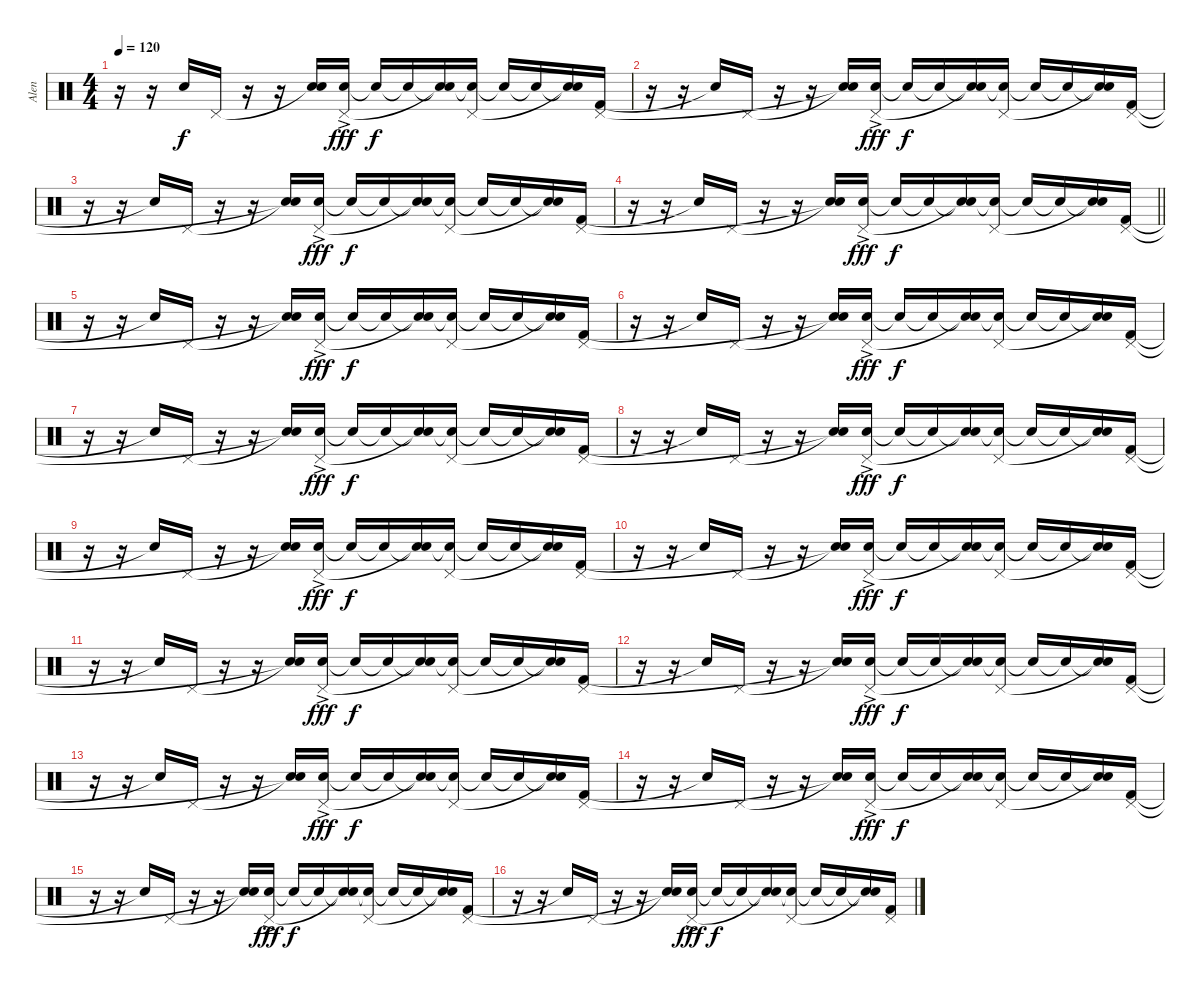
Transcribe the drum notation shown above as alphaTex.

\track ("Alen" "Alen") {instrument percussion}
\staff {score}
\articulation defaults
\ts (4 4)
\tempo 120
\clef neutral
\ks c
r.16{dy f} r.16 "Snare (hit)"{t}.16 "Pedal Hi-Hat (hit)".16 r.16 r.16 ("Snare (hit)"{t} "Snare (hit)"{t}).16 ("Snare (hit) 2"{ac} "Pedal Hi-Hat (hit)").16{dy fff} "Snare (hit)"{t}.16{dy f} "Snare (hit)"{t}.16 ("Snare (hit)"{t} "Snare (hit)"{t}).16 ("Snare (hit)"{t} "Pedal Hi-Hat (hit)").16 "Snare (hit)"{t}.16 "Snare (hit)"{t}.16 ("Snare (hit)"{t} "Snare (hit)"{t}).16 ("Kick (hit) 2" "Pedal Hi-Hat (hit)").16 |
r.16 r.16 "Snare (hit)"{t}.16 "Pedal Hi-Hat (hit)".16 r.16 r.16 ("Snare (hit)"{t} "Snare (hit)"{t}).16 ("Snare (hit) 2"{ac} "Pedal Hi-Hat (hit)").16{dy fff} "Snare (hit)"{t}.16{dy f} "Snare (hit)"{t}.16 ("Snare (hit)"{t} "Snare (hit)"{t}).16 ("Snare (hit)"{t} "Pedal Hi-Hat (hit)").16 "Snare (hit)"{t}.16 "Snare (hit)"{t}.16 ("Snare (hit)"{t} "Snare (hit)"{t}).16 ("Kick (hit) 2" "Pedal Hi-Hat (hit)").16 |
r.16 r.16 "Snare (hit)"{t}.16 "Pedal Hi-Hat (hit)".16 r.16 r.16 ("Snare (hit)"{t} "Snare (hit)"{t}).16 ("Snare (hit) 2"{ac} "Pedal Hi-Hat (hit)").16{dy fff} "Snare (hit)"{t}.16{dy f} "Snare (hit)"{t}.16 ("Snare (hit)"{t} "Snare (hit)"{t}).16 ("Snare (hit)"{t} "Pedal Hi-Hat (hit)").16 "Snare (hit)"{t}.16 "Snare (hit)"{t}.16 ("Snare (hit)"{t} "Snare (hit)"{t}).16 ("Kick (hit) 2" "Pedal Hi-Hat (hit)").16 |
\barLineRight lightlight
r.16 r.16 "Snare (hit)"{t}.16 "Pedal Hi-Hat (hit)".16 r.16 r.16 ("Snare (hit)"{t} "Snare (hit)"{t}).16 ("Snare (hit) 2"{ac} "Pedal Hi-Hat (hit)").16{dy fff} "Snare (hit)"{t}.16{dy f} "Snare (hit)"{t}.16 ("Snare (hit)"{t} "Snare (hit)"{t}).16 ("Snare (hit)"{t} "Pedal Hi-Hat (hit)").16 "Snare (hit)"{t}.16 "Snare (hit)"{t}.16 ("Snare (hit)"{t} "Snare (hit)"{t}).16 ("Kick (hit) 2" "Pedal Hi-Hat (hit)").16 |
r.16 r.16 "Snare (hit)"{t}.16 "Pedal Hi-Hat (hit)".16 r.16 r.16 ("Snare (hit)"{t} "Snare (hit)"{t}).16 ("Snare (hit) 2"{ac} "Pedal Hi-Hat (hit)").16{dy fff} "Snare (hit)"{t}.16{dy f} "Snare (hit)"{t}.16 ("Snare (hit)"{t} "Snare (hit)"{t}).16 ("Snare (hit)"{t} "Pedal Hi-Hat (hit)").16 "Snare (hit)"{t}.16 "Snare (hit)"{t}.16 ("Snare (hit)"{t} "Snare (hit)"{t}).16 ("Kick (hit) 2" "Pedal Hi-Hat (hit)").16 |
r.16 r.16 "Snare (hit)"{t}.16 "Pedal Hi-Hat (hit)".16 r.16 r.16 ("Snare (hit)"{t} "Snare (hit)"{t}).16 ("Snare (hit) 2"{ac} "Pedal Hi-Hat (hit)").16{dy fff} "Snare (hit)"{t}.16{dy f} "Snare (hit)"{t}.16 ("Snare (hit)"{t} "Snare (hit)"{t}).16 ("Snare (hit)"{t} "Pedal Hi-Hat (hit)").16 "Snare (hit)"{t}.16 "Snare (hit)"{t}.16 ("Snare (hit)"{t} "Snare (hit)"{t}).16 ("Kick (hit) 2" "Pedal Hi-Hat (hit)").16 |
r.16 r.16 "Snare (hit)"{t}.16 "Pedal Hi-Hat (hit)".16 r.16 r.16 ("Snare (hit)"{t} "Snare (hit)"{t}).16 ("Snare (hit) 2"{ac} "Pedal Hi-Hat (hit)").16{dy fff} "Snare (hit)"{t}.16{dy f} "Snare (hit)"{t}.16 ("Snare (hit)"{t} "Snare (hit)"{t}).16 ("Snare (hit)"{t} "Pedal Hi-Hat (hit)").16 "Snare (hit)"{t}.16 "Snare (hit)"{t}.16 ("Snare (hit)"{t} "Snare (hit)"{t}).16 ("Kick (hit) 2" "Pedal Hi-Hat (hit)").16 |
r.16 r.16 "Snare (hit)"{t}.16 "Pedal Hi-Hat (hit)".16 r.16 r.16 ("Snare (hit)"{t} "Snare (hit)"{t}).16 ("Snare (hit) 2"{ac} "Pedal Hi-Hat (hit)").16{dy fff} "Snare (hit)"{t}.16{dy f} "Snare (hit)"{t}.16 ("Snare (hit)"{t} "Snare (hit)"{t}).16 ("Snare (hit)"{t} "Pedal Hi-Hat (hit)").16 "Snare (hit)"{t}.16 "Snare (hit)"{t}.16 ("Snare (hit)"{t} "Snare (hit)"{t}).16 ("Kick (hit) 2" "Pedal Hi-Hat (hit)").16 |
r.16 r.16 "Snare (hit)"{t}.16 "Pedal Hi-Hat (hit)".16 r.16 r.16 ("Snare (hit)"{t} "Snare (hit)"{t}).16 ("Snare (hit) 2"{ac} "Pedal Hi-Hat (hit)").16{dy fff} "Snare (hit)"{t}.16{dy f} "Snare (hit)"{t}.16 ("Snare (hit)"{t} "Snare (hit)"{t}).16 ("Snare (hit)"{t} "Pedal Hi-Hat (hit)").16 "Snare (hit)"{t}.16 "Snare (hit)"{t}.16 ("Snare (hit)"{t} "Snare (hit)"{t}).16 ("Kick (hit) 2" "Pedal Hi-Hat (hit)").16 |
r.16 r.16 "Snare (hit)"{t}.16 "Pedal Hi-Hat (hit)".16 r.16 r.16 ("Snare (hit)"{t} "Snare (hit)"{t}).16 ("Snare (hit) 2"{ac} "Pedal Hi-Hat (hit)").16{dy fff} "Snare (hit)"{t}.16{dy f} "Snare (hit)"{t}.16 ("Snare (hit)"{t} "Snare (hit)"{t}).16 ("Snare (hit)"{t} "Pedal Hi-Hat (hit)").16 "Snare (hit)"{t}.16 "Snare (hit)"{t}.16 ("Snare (hit)"{t} "Snare (hit)"{t}).16 ("Kick (hit) 2" "Pedal Hi-Hat (hit)").16 |
r.16 r.16 "Snare (hit)"{t}.16 "Pedal Hi-Hat (hit)".16 r.16 r.16 ("Snare (hit)"{t} "Snare (hit)"{t}).16 ("Snare (hit) 2"{ac} "Pedal Hi-Hat (hit)").16{dy fff} "Snare (hit)"{t}.16{dy f} "Snare (hit)"{t}.16 ("Snare (hit)"{t} "Snare (hit)"{t}).16 ("Snare (hit)"{t} "Pedal Hi-Hat (hit)").16 "Snare (hit)"{t}.16 "Snare (hit)"{t}.16 ("Snare (hit)"{t} "Snare (hit)"{t}).16 ("Kick (hit) 2" "Pedal Hi-Hat (hit)").16 |
r.16 r.16 "Snare (hit)"{t}.16 "Pedal Hi-Hat (hit)".16 r.16 r.16 ("Snare (hit)"{t} "Snare (hit)"{t}).16 ("Snare (hit) 2"{ac} "Pedal Hi-Hat (hit)").16{dy fff} "Snare (hit)"{t}.16{dy f} "Snare (hit)"{t}.16 ("Snare (hit)"{t} "Snare (hit)"{t}).16 ("Snare (hit)"{t} "Pedal Hi-Hat (hit)").16 "Snare (hit)"{t}.16 "Snare (hit)"{t}.16 ("Snare (hit)"{t} "Snare (hit)"{t}).16 ("Kick (hit) 2" "Pedal Hi-Hat (hit)").16 |
r.16 r.16 "Snare (hit)"{t}.16 "Pedal Hi-Hat (hit)".16 r.16 r.16 ("Snare (hit)"{t} "Snare (hit)"{t}).16 ("Snare (hit) 2"{ac} "Pedal Hi-Hat (hit)").16{dy fff} "Snare (hit)"{t}.16{dy f} "Snare (hit)"{t}.16 ("Snare (hit)"{t} "Snare (hit)"{t}).16 ("Snare (hit)"{t} "Pedal Hi-Hat (hit)").16 "Snare (hit)"{t}.16 "Snare (hit)"{t}.16 ("Snare (hit)"{t} "Snare (hit)"{t}).16 ("Kick (hit) 2" "Pedal Hi-Hat (hit)").16 |
r.16 r.16 "Snare (hit)"{t}.16 "Pedal Hi-Hat (hit)".16 r.16 r.16 ("Snare (hit)"{t} "Snare (hit)"{t}).16 ("Snare (hit) 2"{ac} "Pedal Hi-Hat (hit)").16{dy fff} "Snare (hit)"{t}.16{dy f} "Snare (hit)"{t}.16 ("Snare (hit)"{t} "Snare (hit)"{t}).16 ("Snare (hit)"{t} "Pedal Hi-Hat (hit)").16 "Snare (hit)"{t}.16 "Snare (hit)"{t}.16 ("Snare (hit)"{t} "Snare (hit)"{t}).16 ("Kick (hit) 2" "Pedal Hi-Hat (hit)").16 |
r.16 r.16 "Snare (hit)"{t}.16 "Pedal Hi-Hat (hit)".16 r.16 r.16 ("Snare (hit)"{t} "Snare (hit)"{t}).16 ("Snare (hit) 2"{ac} "Pedal Hi-Hat (hit)").16{dy fff} "Snare (hit)"{t}.16{dy f} "Snare (hit)"{t}.16 ("Snare (hit)"{t} "Snare (hit)"{t}).16 ("Snare (hit)"{t} "Pedal Hi-Hat (hit)").16 "Snare (hit)"{t}.16 "Snare (hit)"{t}.16 ("Snare (hit)"{t} "Snare (hit)"{t}).16 ("Kick (hit) 2" "Pedal Hi-Hat (hit)").16 |
r.16 r.16 "Snare (hit)"{t}.16 "Pedal Hi-Hat (hit)".16 r.16 r.16 ("Snare (hit)"{t} "Snare (hit)"{t}).16 ("Snare (hit) 2"{ac} "Pedal Hi-Hat (hit)").16{dy fff} "Snare (hit)"{t}.16{dy f} "Snare (hit)"{t}.16 ("Snare (hit)"{t} "Snare (hit)"{t}).16 ("Snare (hit)"{t} "Pedal Hi-Hat (hit)").16 "Snare (hit)"{t}.16 "Snare (hit)"{t}.16 ("Snare (hit)"{t} "Snare (hit)"{t}).16 ("Kick (hit) 2" "Pedal Hi-Hat (hit)").16
